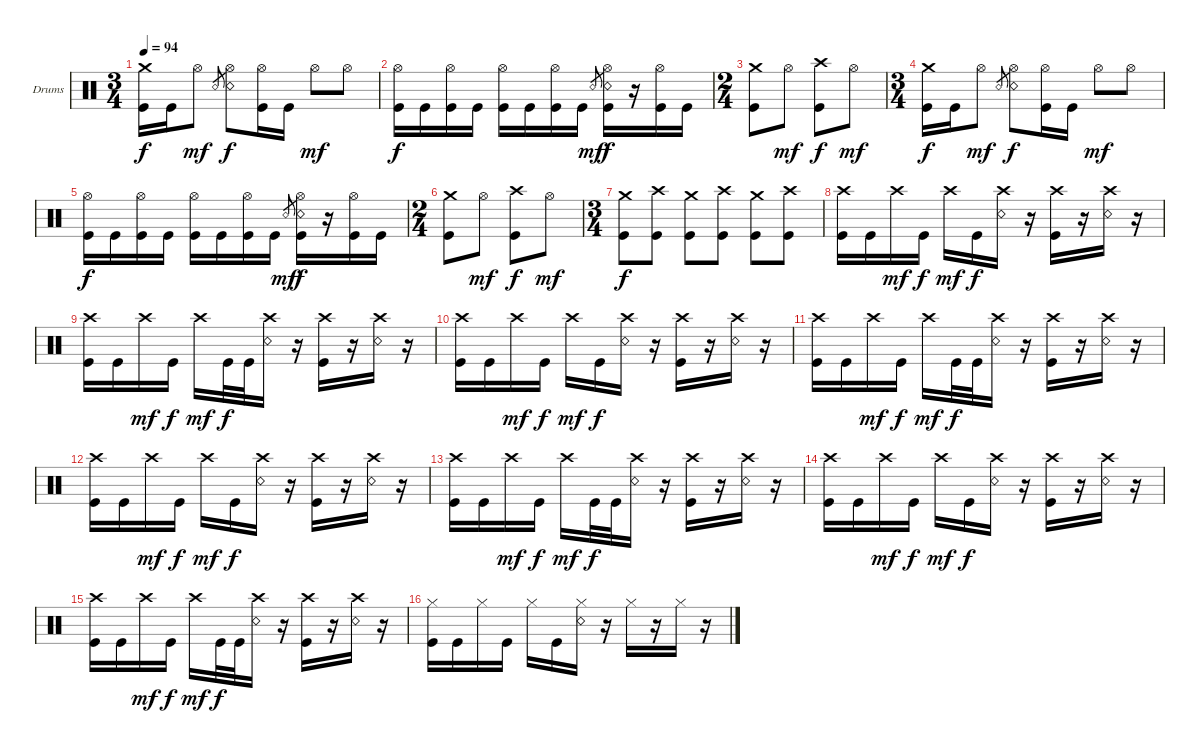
\bracketExtendMode groupsimilarinstruments
\firstSystemTrackNameOrientation horizontal
\otherSystemsTrackNameOrientation horizontal
\track ("Drumkit" "Drums") {instrument percussion}
\staff {score}
\articulation defaults
\ts (3 4)
\tempo 94
\clef neutral
\ks c
("Kick (hit)" "Crash medium (hit)").16{dy f} "Kick (hit)".16 "Hi-Hat (open)".8{dy mf} "Snare (rim shot)".8{gr} ("Snare (rim shot)" "Hi-Hat (open)").8{dy f} ("Kick (hit)" "Hi-Hat (open)").16 "Kick (hit)".16 "Hi-Hat (open)".8{dy mf} "Hi-Hat (open)".8 |
("Kick (hit)" "Hi-Hat (open)").16{dy f} "Kick (hit)".16 ("Kick (hit)" "Hi-Hat (open)").16 "Kick (hit)".16 ("Kick (hit)" "Hi-Hat (open)").16 "Kick (hit)".16 ("Kick (hit)" "Hi-Hat (open)").16 "Kick (hit)".16 "Snare (rim shot)".8{gr dy mf} ("Kick (hit)" "Snare (rim shot)" "Hi-Hat (open)").16{dy f} r.16 ("Kick (hit)" "Hi-Hat (open)").16 "Kick (hit)".16 |
\ts (2 4)
("Kick (hit)" "Crash medium (hit)").8 "Hi-Hat (open)".8{dy mf} ("Kick (hit)" "Crash high (hit)").8{dy f} "Hi-Hat (open)".8{dy mf} |
\ts (3 4)
("Kick (hit)" "Crash medium (hit)").16{dy f} "Kick (hit)".16 "Hi-Hat (open)".8{dy mf} "Snare (rim shot)".8{gr} ("Snare (rim shot)" "Hi-Hat (open)").8{dy f} ("Kick (hit)" "Hi-Hat (open)").16 "Kick (hit)".16 "Hi-Hat (open)".8{dy mf} "Hi-Hat (open)".8 |
("Kick (hit)" "Hi-Hat (open)").16{dy f} "Kick (hit)".16 ("Kick (hit)" "Hi-Hat (open)").16 "Kick (hit)".16 ("Kick (hit)" "Hi-Hat (open)").16 "Kick (hit)".16 ("Kick (hit)" "Hi-Hat (open)").16 "Kick (hit)".16 "Snare (rim shot)".8{gr dy mf} ("Kick (hit)" "Snare (rim shot)" "Hi-Hat (open)").16{dy f} r.16 ("Kick (hit)" "Hi-Hat (open)").16 "Kick (hit)".16 |
\ts (2 4)
("Kick (hit)" "Crash medium (hit)").8 "Hi-Hat (open)".8{dy mf} ("Kick (hit)" "Crash high (hit)").8{dy f} "Hi-Hat (open)".8{dy mf} |
\ts (3 4)
("Kick (hit)" "Crash medium (hit)").8{dy f} ("Kick (hit)" "Crash high (hit)").8 ("Kick (hit)" "Crash medium (hit)").8 ("Kick (hit)" "Crash high (hit)").8 ("Kick (hit)" "Crash medium (hit)").8 ("Kick (hit)" "Crash high (hit)").8 |
("Kick (hit)" "Crash high (hit)").16 "Kick (hit)".16 "Crash high (hit)".16{dy mf} "Kick (hit)".16{dy f} "Crash high (hit)".16{dy mf} "Kick (hit)".16{dy f} ("Snare (rim shot)" "Crash high (hit)").16 r.16 ("Kick (hit)" "Crash high (hit)").16 r.16 ("Snare (rim shot)" "Crash high (hit)").16 r.16 |
("Kick (hit)" "Crash high (hit)").16 "Kick (hit)".16 "Crash high (hit)".16{dy mf} "Kick (hit)".16{dy f} "Crash high (hit)".16{dy mf} "Kick (hit)".32{dy f} "Kick (hit)".32 ("Snare (rim shot)" "Crash high (hit)").16 r.16 ("Kick (hit)" "Crash high (hit)").16 r.16 ("Snare (rim shot)" "Crash high (hit)").16 r.16 |
("Kick (hit)" "Crash high (hit)").16 "Kick (hit)".16 "Crash high (hit)".16{dy mf} "Kick (hit)".16{dy f} "Crash high (hit)".16{dy mf} "Kick (hit)".16{dy f} ("Snare (rim shot)" "Crash high (hit)").16 r.16 ("Kick (hit)" "Crash high (hit)").16 r.16 ("Snare (rim shot)" "Crash high (hit)").16 r.16 |
("Kick (hit)" "Crash high (hit)").16 "Kick (hit)".16 "Crash high (hit)".16{dy mf} "Kick (hit)".16{dy f} "Crash high (hit)".16{dy mf} "Kick (hit)".32{dy f} "Kick (hit)".32 ("Snare (rim shot)" "Crash high (hit)").16 r.16 ("Kick (hit)" "Crash high (hit)").16 r.16 ("Snare (rim shot)" "Crash high (hit)").16 r.16 |
("Kick (hit)" "Crash high (hit)").16 "Kick (hit)".16 "Crash high (hit)".16{dy mf} "Kick (hit)".16{dy f} "Crash high (hit)".16{dy mf} "Kick (hit)".16{dy f} ("Snare (rim shot)" "Crash high (hit)").16 r.16 ("Kick (hit)" "Crash high (hit)").16 r.16 ("Snare (rim shot)" "Crash high (hit)").16 r.16 |
("Kick (hit)" "Crash high (hit)").16 "Kick (hit)".16 "Crash high (hit)".16{dy mf} "Kick (hit)".16{dy f} "Crash high (hit)".16{dy mf} "Kick (hit)".32{dy f} "Kick (hit)".32 ("Snare (rim shot)" "Crash high (hit)").16 r.16 ("Kick (hit)" "Crash high (hit)").16 r.16 ("Snare (rim shot)" "Crash high (hit)").16 r.16 |
("Kick (hit)" "Crash high (hit)").16 "Kick (hit)".16 "Crash high (hit)".16{dy mf} "Kick (hit)".16{dy f} "Crash high (hit)".16{dy mf} "Kick (hit)".16{dy f} ("Snare (rim shot)" "Crash high (hit)").16 r.16 ("Kick (hit)" "Crash high (hit)").16 r.16 ("Snare (rim shot)" "Crash high (hit)").16 r.16 |
("Kick (hit)" "Crash high (hit)").16 "Kick (hit)".16 "Crash high (hit)".16{dy mf} "Kick (hit)".16{dy f} "Crash high (hit)".16{dy mf} "Kick (hit)".32{dy f} "Kick (hit)".32 ("Snare (rim shot)" "Crash high (hit)").16 r.16 ("Kick (hit)" "Crash high (hit)").16 r.16 ("Snare (rim shot)" "Crash high (hit)").16 r.16 |
("Kick (hit)" "Hi-Hat (closed)").16 "Kick (hit)".16 "Hi-Hat (closed)".16 "Kick (hit)".16 "Hi-Hat (closed)".16 "Kick (hit)".16 ("Snare (rim shot)" "Hi-Hat (closed)").16 r.16 "Hi-Hat (closed)".16 r.16 "Hi-Hat (closed)".16 r.16
